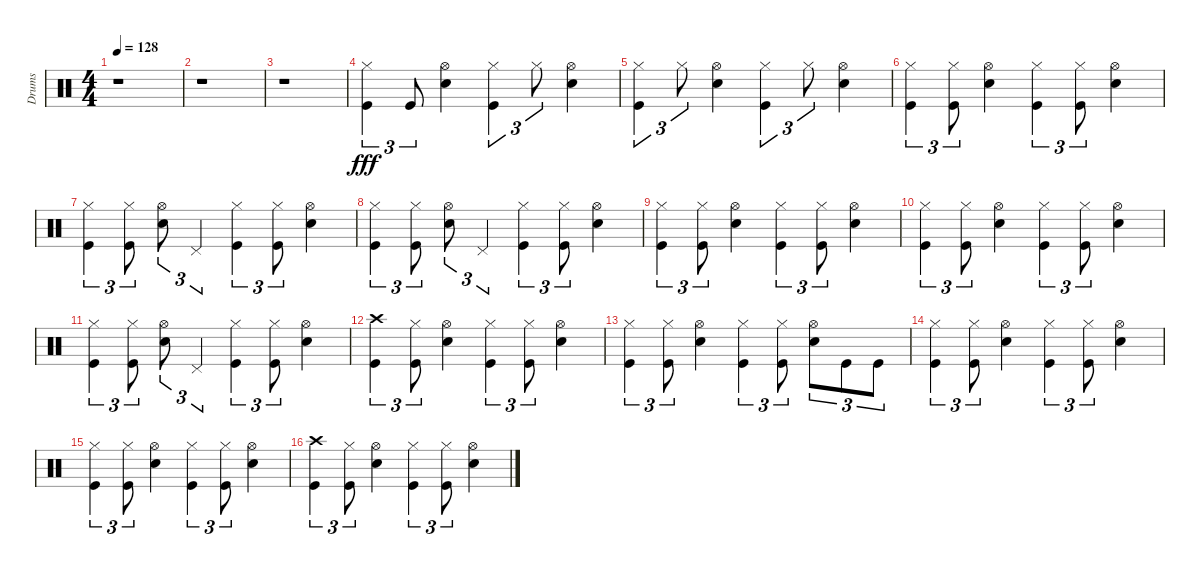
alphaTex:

\track ("Drums" "Drums") {instrument percussion}
\staff {score}
\articulation defaults
\ts (4 4)
\tempo 128
\clef neutral
\ks c
r.1{dy fff} |
r.1 |
r.1 |
("Hi-Hat (closed)" "Kick (hit)").4{tu (3 2)} "Kick (hit)".8{tu (3 2)} ("Hi-Hat (open)" "Snare (hit) 2").4 ("Hi-Hat (closed)" "Kick (hit)").4{tu (3 2)} "Hi-Hat (closed)".8{tu (3 2)} ("Hi-Hat (open)" "Snare (hit) 2").4 |
("Hi-Hat (closed)" "Kick (hit)").4{tu (3 2)} "Hi-Hat (closed)".8{tu (3 2)} ("Hi-Hat (open)" "Snare (hit) 2").4 ("Hi-Hat (closed)" "Kick (hit)").4{tu (3 2)} "Hi-Hat (closed)".8{tu (3 2)} ("Hi-Hat (open)" "Snare (hit) 2").4 |
("Hi-Hat (closed)" "Kick (hit)").4{tu (3 2)} ("Hi-Hat (closed)" "Kick (hit)").8{tu (3 2)} ("Hi-Hat (open)" "Snare (hit) 2").4 ("Hi-Hat (closed)" "Kick (hit)").4{tu (3 2)} ("Hi-Hat (closed)" "Kick (hit)").8{tu (3 2)} ("Hi-Hat (open)" "Snare (hit) 2").4 |
("Hi-Hat (closed)" "Kick (hit)").4{tu (3 2)} ("Hi-Hat (closed)" "Kick (hit)").8{tu (3 2)} ("Hi-Hat (open)" "Snare (hit) 2").8{tu (3 2)} "Pedal Hi-Hat (hit)".4{tu (3 2)} ("Hi-Hat (closed)" "Kick (hit)").4{tu (3 2)} ("Hi-Hat (closed)" "Kick (hit)").8{tu (3 2)} ("Hi-Hat (open)" "Snare (hit) 2").4 |
("Hi-Hat (closed)" "Kick (hit)").4{tu (3 2)} ("Hi-Hat (closed)" "Kick (hit)").8{tu (3 2)} ("Hi-Hat (open)" "Snare (hit) 2").8{tu (3 2)} "Pedal Hi-Hat (hit)".4{tu (3 2)} ("Hi-Hat (closed)" "Kick (hit)").4{tu (3 2)} ("Hi-Hat (closed)" "Kick (hit)").8{tu (3 2)} ("Hi-Hat (open)" "Snare (hit) 2").4 |
("Hi-Hat (closed)" "Kick (hit)").4{tu (3 2)} ("Hi-Hat (closed)" "Kick (hit)").8{tu (3 2)} ("Hi-Hat (open)" "Snare (hit) 2").4 ("Hi-Hat (closed)" "Kick (hit)").4{tu (3 2)} ("Hi-Hat (closed)" "Kick (hit)").8{tu (3 2)} ("Hi-Hat (open)" "Snare (hit) 2").4 |
("Hi-Hat (closed)" "Kick (hit)").4{tu (3 2)} ("Hi-Hat (closed)" "Kick (hit)").8{tu (3 2)} ("Hi-Hat (open)" "Snare (hit) 2").4 ("Hi-Hat (closed)" "Kick (hit)").4{tu (3 2)} ("Hi-Hat (closed)" "Kick (hit)").8{tu (3 2)} ("Hi-Hat (open)" "Snare (hit) 2").4 |
("Hi-Hat (closed)" "Kick (hit)").4{tu (3 2)} ("Hi-Hat (closed)" "Kick (hit)").8{tu (3 2)} ("Hi-Hat (open)" "Snare (hit) 2").8{tu (3 2)} "Pedal Hi-Hat (hit)".4{tu (3 2)} ("Hi-Hat (closed)" "Kick (hit)").4{tu (3 2)} ("Hi-Hat (closed)" "Kick (hit)").8{tu (3 2)} ("Hi-Hat (open)" "Snare (hit) 2").4 |
("Crash high (hit)" "Kick (hit)").4{tu (3 2)} ("Hi-Hat (closed)" "Kick (hit)").8{tu (3 2)} ("Hi-Hat (open)" "Snare (hit) 2").4 ("Hi-Hat (closed)" "Kick (hit)").4{tu (3 2)} ("Hi-Hat (closed)" "Kick (hit)").8{tu (3 2)} ("Hi-Hat (open)" "Snare (hit) 2").4 |
("Hi-Hat (closed)" "Kick (hit)").4{tu (3 2)} ("Hi-Hat (closed)" "Kick (hit)").8{tu (3 2)} ("Hi-Hat (open)" "Snare (hit) 2").4 ("Hi-Hat (closed)" "Kick (hit)").4{tu (3 2)} ("Hi-Hat (closed)" "Kick (hit)").8{tu (3 2)} ("Hi-Hat (open)" "Snare (hit) 2").8{tu (3 2)} "Kick (hit)".8{tu (3 2)} "Kick (hit)".8{tu (3 2)} |
("Hi-Hat (closed)" "Kick (hit)").4{tu (3 2)} ("Hi-Hat (closed)" "Kick (hit)").8{tu (3 2)} ("Hi-Hat (open)" "Snare (hit) 2").4 ("Hi-Hat (closed)" "Kick (hit)").4{tu (3 2)} ("Hi-Hat (closed)" "Kick (hit)").8{tu (3 2)} ("Hi-Hat (open)" "Snare (hit) 2").4 |
("Hi-Hat (closed)" "Kick (hit)").4{tu (3 2)} ("Hi-Hat (closed)" "Kick (hit)").8{tu (3 2)} ("Hi-Hat (open)" "Snare (hit) 2").4 ("Hi-Hat (closed)" "Kick (hit)").4{tu (3 2)} ("Hi-Hat (closed)" "Kick (hit)").8{tu (3 2)} ("Hi-Hat (open)" "Snare (hit) 2").4 |
("Crash high (hit)" "Kick (hit)").4{tu (3 2)} ("Hi-Hat (closed)" "Kick (hit)").8{tu (3 2)} ("Hi-Hat (open)" "Snare (hit) 2").4 ("Hi-Hat (closed)" "Kick (hit)").4{tu (3 2)} ("Hi-Hat (closed)" "Kick (hit)").8{tu (3 2)} ("Hi-Hat (open)" "Snare (hit) 2").4
